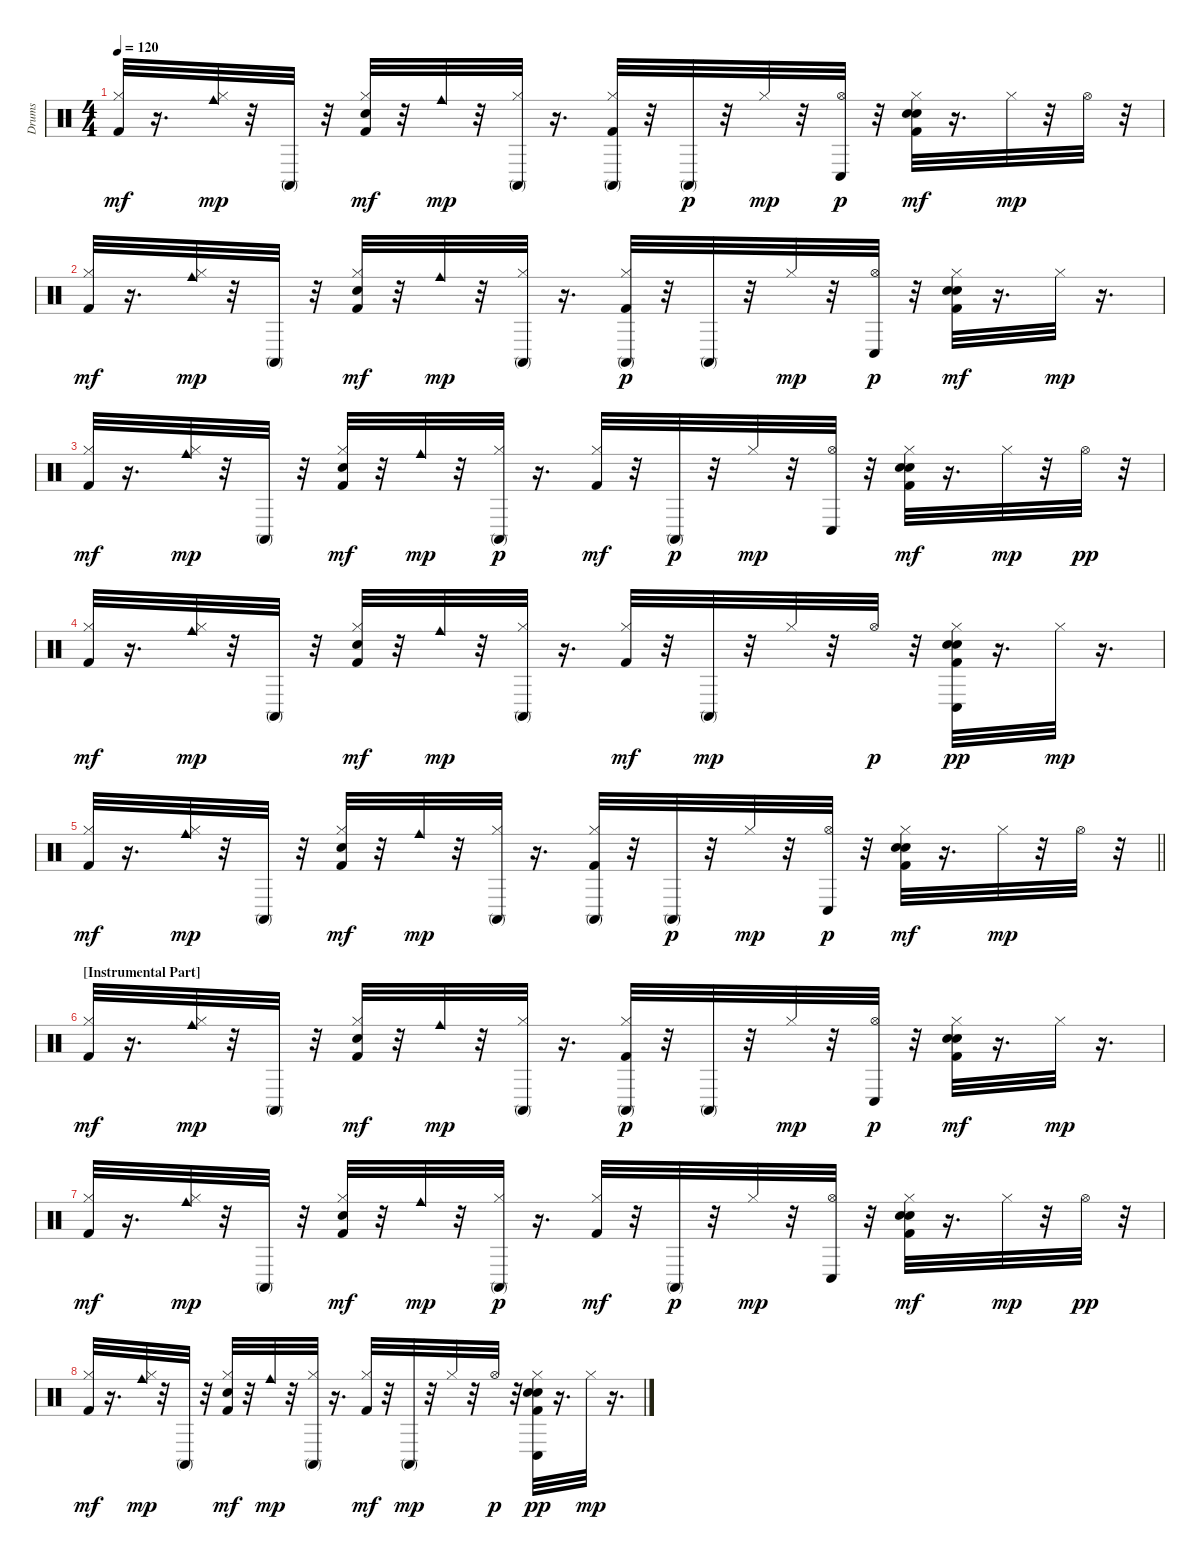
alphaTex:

\track ("Drums" "Drums") {instrument percussion}
\staff {score}
\articulation defaults
\ts (4 4)
\tempo 120
\clef neutral
\ks c
("Hi-Hat (closed)" "Kick (hit) 2").32{dy mf} r.16{d} ("Hi-Hat (closed)" "Cowbell medium (hit)").32{dy mp} r.32 "Conga high (mute)".32 r.32 ("Hi-Hat (closed)" "Electric Snare (hit)" "Kick (hit) 2").32{dy mf} r.32 "Cowbell medium (hit)".32{dy mp} r.32 ("Hi-Hat (closed)" "Conga high (mute)").32 r.16{d} ("Hi-Hat (closed)" "Kick (hit) 2" "Conga high (mute)").32 r.32 "Conga high (mute)".32{dy p} r.32 "Hi-Hat (closed)".32{dy mp} r.32 ("Hi-Hat (open)" "Conga low (hit)").32{dy p} r.32 ("Kick (hit) 2" "Hi-Hat (closed)" "Electric Snare (hit)" "Hand Clap (hit)").32{dy mf} r.16{d} "Hi-Hat (closed)".32{dy mp} r.32 "Hi-Hat (open)".32 r.32 |
("Hi-Hat (closed)" "Kick (hit) 2").32{dy mf} r.16{d} ("Hi-Hat (closed)" "Cowbell medium (hit)").32{dy mp} r.32 "Conga high (mute)".32 r.32 ("Hi-Hat (closed)" "Electric Snare (hit)" "Kick (hit) 2").32{dy mf} r.32 "Cowbell medium (hit)".32{dy mp} r.32 ("Hi-Hat (closed)" "Conga high (mute)").32 r.16{d} ("Kick (hit) 2" "Hi-Hat (closed)" "Conga high (mute)").32{dy p} r.32 "Conga high (mute)".32 r.32 "Hi-Hat (closed)".32{dy mp} r.32 ("Hi-Hat (open)" "Conga low (hit)").32{dy p} r.32 ("Hi-Hat (closed)" "Hand Clap (hit)" "Electric Snare (hit)" "Kick (hit) 2").32{dy mf} r.16{d} "Hi-Hat (closed)".32{dy mp} r.16{d} |
("Hi-Hat (closed)" "Kick (hit) 2").32{dy mf} r.16{d} ("Hi-Hat (closed)" "Cowbell medium (hit)").32{dy mp} r.32 "Conga high (mute)".32 r.32 ("Hi-Hat (closed)" "Electric Snare (hit)" "Kick (hit) 2").32{dy mf} r.32 "Cowbell medium (hit)".32{dy mp} r.32 ("Hi-Hat (closed)" "Conga high (mute)").32{dy p} r.16{d} ("Hi-Hat (closed)" "Kick (hit) 2").32{dy mf} r.32 "Conga high (mute)".32{dy p} r.32 "Hi-Hat (closed)".32{dy mp} r.32 ("Hi-Hat (open)" "Conga low (hit)").32 r.32 ("Kick (hit) 2" "Hi-Hat (closed)" "Electric Snare (hit)" "Hand Clap (hit)").32{dy mf} r.16{d} "Hi-Hat (closed)".32{dy mp} r.32 "Hi-Hat (open)".32{dy pp} r.32 |
("Hi-Hat (closed)" "Kick (hit) 2").32{dy mf} r.16{d} ("Hi-Hat (closed)" "Cowbell medium (hit)").32{dy mp} r.32 "Conga high (mute)".32 r.32 ("Hi-Hat (closed)" "Electric Snare (hit)" "Kick (hit) 2").32{dy mf} r.32 "Cowbell medium (hit)".32{dy mp} r.32 ("Hi-Hat (closed)" "Conga high (mute)").32 r.16{d} ("Hi-Hat (closed)" "Kick (hit) 2").32{dy mf} r.32 "Conga high (mute)".32{dy mp} r.32 "Hi-Hat (closed)".32 r.32 "Hi-Hat (open)".32{dy p} r.32 ("Hi-Hat (closed)" "Kick (hit) 2" "Hand Clap (hit)" "Electric Snare (hit)" "Conga low (hit)").32{dy pp} r.16{d} "Hi-Hat (closed)".32{dy mp} r.16{d} |
\barLineRight lightlight
("Hi-Hat (closed)" "Kick (hit) 2").32{dy mf} r.16{d} ("Hi-Hat (closed)" "Cowbell medium (hit)").32{dy mp} r.32 "Conga high (mute)".32 r.32 ("Hi-Hat (closed)" "Electric Snare (hit)" "Kick (hit) 2").32{dy mf} r.32 "Cowbell medium (hit)".32{dy mp} r.32 ("Hi-Hat (closed)" "Conga high (mute)").32 r.16{d} ("Hi-Hat (closed)" "Kick (hit) 2" "Conga high (mute)").32 r.32 "Conga high (mute)".32{dy p} r.32 "Hi-Hat (closed)".32{dy mp} r.32 ("Hi-Hat (open)" "Conga low (hit)").32{dy p} r.32 ("Kick (hit) 2" "Hi-Hat (closed)" "Electric Snare (hit)" "Hand Clap (hit)").32{dy mf} r.16{d} "Hi-Hat (closed)".32{dy mp} r.32 "Hi-Hat (open)".32 r.32 |
\section ("" "[Instrumental Part]")
("Hi-Hat (closed)" "Kick (hit) 2").32{dy mf} r.16{d} ("Hi-Hat (closed)" "Cowbell medium (hit)").32{dy mp} r.32 "Conga high (mute)".32 r.32 ("Hi-Hat (closed)" "Electric Snare (hit)" "Kick (hit) 2").32{dy mf} r.32 "Cowbell medium (hit)".32{dy mp} r.32 ("Hi-Hat (closed)" "Conga high (mute)").32 r.16{d} ("Kick (hit) 2" "Hi-Hat (closed)" "Conga high (mute)").32{dy p} r.32 "Conga high (mute)".32 r.32 "Hi-Hat (closed)".32{dy mp} r.32 ("Hi-Hat (open)" "Conga low (hit)").32{dy p} r.32 ("Hi-Hat (closed)" "Hand Clap (hit)" "Electric Snare (hit)" "Kick (hit) 2").32{dy mf} r.16{d} "Hi-Hat (closed)".32{dy mp} r.16{d} |
("Hi-Hat (closed)" "Kick (hit) 2").32{dy mf} r.16{d} ("Hi-Hat (closed)" "Cowbell medium (hit)").32{dy mp} r.32 "Conga high (mute)".32 r.32 ("Hi-Hat (closed)" "Electric Snare (hit)" "Kick (hit) 2").32{dy mf} r.32 "Cowbell medium (hit)".32{dy mp} r.32 ("Hi-Hat (closed)" "Conga high (mute)").32{dy p} r.16{d} ("Hi-Hat (closed)" "Kick (hit) 2").32{dy mf} r.32 "Conga high (mute)".32{dy p} r.32 "Hi-Hat (closed)".32{dy mp} r.32 ("Hi-Hat (open)" "Conga low (hit)").32 r.32 ("Kick (hit) 2" "Hi-Hat (closed)" "Electric Snare (hit)" "Hand Clap (hit)").32{dy mf} r.16{d} "Hi-Hat (closed)".32{dy mp} r.32 "Hi-Hat (open)".32{dy pp} r.32 |
("Hi-Hat (closed)" "Kick (hit) 2").32{dy mf} r.16{d} ("Hi-Hat (closed)" "Cowbell medium (hit)").32{dy mp} r.32 "Conga high (mute)".32 r.32 ("Hi-Hat (closed)" "Electric Snare (hit)" "Kick (hit) 2").32{dy mf} r.32 "Cowbell medium (hit)".32{dy mp} r.32 ("Hi-Hat (closed)" "Conga high (mute)").32 r.16{d} ("Hi-Hat (closed)" "Kick (hit) 2").32{dy mf} r.32 "Conga high (mute)".32{dy mp} r.32 "Hi-Hat (closed)".32 r.32 "Hi-Hat (open)".32{dy p} r.32 ("Hi-Hat (closed)" "Kick (hit) 2" "Hand Clap (hit)" "Electric Snare (hit)" "Conga low (hit)").32{dy pp} r.16{d} "Hi-Hat (closed)".32{dy mp} r.16{d}
